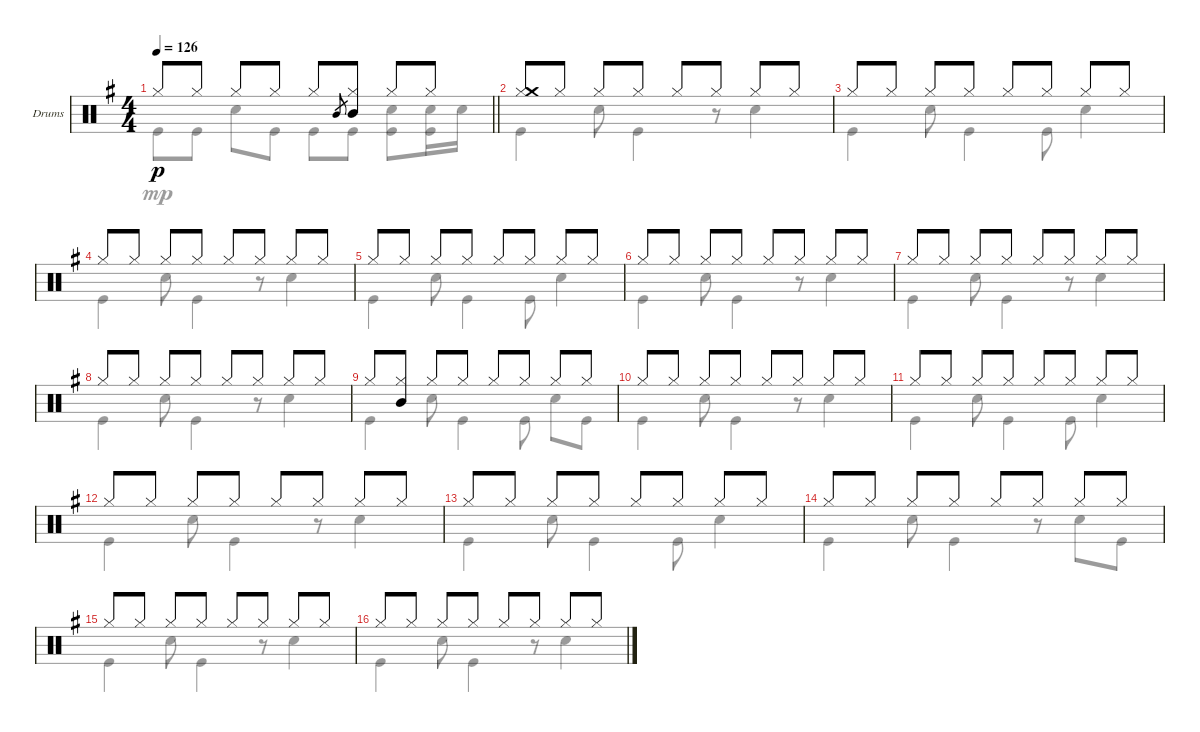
\bracketExtendMode groupsimilarinstruments
\firstSystemTrackNameOrientation horizontal
\otherSystemsTrackNameOrientation horizontal
\track ("Ударные" "Drums") {instrument percussion}
\staff {score}
\articulation defaults
\voice
\ts (4 4)
\tempo 126
\clef neutral
\barLineRight lightlight
\ks eminor "Hi-Hat (closed)".8{dy p} "Hi-Hat (closed)".8 "Hi-Hat (closed)".8 "Hi-Hat (closed)".8 "Hi-Hat (closed)".8 "Mid Tom (hit)".8{gr}
("Hi-Hat (closed)" "Mid Tom (hit)").8 "Hi-Hat (closed)".8 "Hi-Hat (closed)".8 |
\section ("" "")
("Hi-Hat (closed)" "Crash medium (hit)").8 "Hi-Hat (closed)".8 "Hi-Hat (closed)".8 "Hi-Hat (closed)".8 "Hi-Hat (closed)".8 "Hi-Hat (closed)".8 "Hi-Hat (closed)".8 "Hi-Hat (closed)".8 |
"Hi-Hat (closed)".8 "Hi-Hat (closed)".8 "Hi-Hat (closed)".8 "Hi-Hat (closed)".8 "Hi-Hat (closed)".8 "Hi-Hat (closed)".8 "Hi-Hat (closed)".8 "Hi-Hat (closed)".8 |
"Hi-Hat (closed)".8 "Hi-Hat (closed)".8 "Hi-Hat (closed)".8 "Hi-Hat (closed)".8 "Hi-Hat (closed)".8 "Hi-Hat (closed)".8 "Hi-Hat (closed)".8 "Hi-Hat (closed)".8 |
"Hi-Hat (closed)".8 "Hi-Hat (closed)".8 "Hi-Hat (closed)".8 "Hi-Hat (closed)".8 "Hi-Hat (closed)".8 "Hi-Hat (closed)".8 "Hi-Hat (closed)".8 "Hi-Hat (closed)".8 |
"Hi-Hat (closed)".8 "Hi-Hat (closed)".8 "Hi-Hat (closed)".8 "Hi-Hat (closed)".8 "Hi-Hat (closed)".8 "Hi-Hat (closed)".8 "Hi-Hat (closed)".8 "Hi-Hat (closed)".8 |
"Hi-Hat (closed)".8 "Hi-Hat (closed)".8 "Hi-Hat (closed)".8 "Hi-Hat (closed)".8 "Hi-Hat (closed)".8 "Hi-Hat (closed)".8 "Hi-Hat (closed)".8 "Hi-Hat (closed)".8 |
"Hi-Hat (closed)".8 "Hi-Hat (closed)".8 "Hi-Hat (closed)".8 "Hi-Hat (closed)".8 "Hi-Hat (closed)".8 "Hi-Hat (closed)".8 "Hi-Hat (closed)".8 "Hi-Hat (closed)".8 |
"Hi-Hat (closed)".8 ("Hi-Hat (closed)" "Mid Tom (hit)").8 "Hi-Hat (closed)".8 "Hi-Hat (closed)".8 "Hi-Hat (closed)".8 "Hi-Hat (closed)".8 "Hi-Hat (closed)".8 "Hi-Hat (closed)".8 |
"Hi-Hat (closed)".8 "Hi-Hat (closed)".8 "Hi-Hat (closed)".8 "Hi-Hat (closed)".8 "Hi-Hat (closed)".8 "Hi-Hat (closed)".8 "Hi-Hat (closed)".8 "Hi-Hat (closed)".8 |
"Hi-Hat (closed)".8 "Hi-Hat (closed)".8 "Hi-Hat (closed)".8 "Hi-Hat (closed)".8 "Hi-Hat (closed)".8 "Hi-Hat (closed)".8 "Hi-Hat (closed)".8 "Hi-Hat (closed)".8 |
"Hi-Hat (closed)".8 "Hi-Hat (closed)".8 "Hi-Hat (closed)".8 "Hi-Hat (closed)".8 "Hi-Hat (closed)".8 "Hi-Hat (closed)".8 "Hi-Hat (closed)".8 "Hi-Hat (closed)".8 |
"Hi-Hat (closed)".8 "Hi-Hat (closed)".8 "Hi-Hat (closed)".8 "Hi-Hat (closed)".8 "Hi-Hat (closed)".8 "Hi-Hat (closed)".8 "Hi-Hat (closed)".8 "Hi-Hat (closed)".8 |
"Hi-Hat (closed)".8 "Hi-Hat (closed)".8 "Hi-Hat (closed)".8 "Hi-Hat (closed)".8 "Hi-Hat (closed)".8 "Hi-Hat (closed)".8 "Hi-Hat (closed)".8 "Hi-Hat (closed)".8 |
"Hi-Hat (closed)".8 "Hi-Hat (closed)".8 "Hi-Hat (closed)".8 "Hi-Hat (closed)".8 "Hi-Hat (closed)".8 "Hi-Hat (closed)".8 "Hi-Hat (closed)".8 "Hi-Hat (closed)".8 |
"Hi-Hat (closed)".8 "Hi-Hat (closed)".8 "Hi-Hat (closed)".8 "Hi-Hat (closed)".8 "Hi-Hat (closed)".8 "Hi-Hat (closed)".8 "Hi-Hat (closed)".8 "Hi-Hat (closed)".8
\voice
\clef neutral
\ottava regular
\simile none
\barLineRight lightlight
\ks eminor "Kick (hit)".8{dy mp} "Kick (hit)".8 "Snare (hit) 2".8 "Kick (hit)".8 "Kick (hit)".8 "Kick (hit)".8
("Snare (hit) 2" "Kick (hit)").8 ("Snare (hit) 2" "Kick (hit)").16 "Snare (hit) 2".16 |
"Kick (hit)".4 "Snare (hit) 2".8 "Kick (hit)".4 r.8 "Snare (hit) 2".4 |
"Kick (hit)".4 "Snare (hit) 2".8 "Kick (hit)".4 "Kick (hit)".8 "Snare (hit) 2".4 |
"Kick (hit)".4 "Snare (hit) 2".8 "Kick (hit)".4 r.8 "Snare (hit) 2".4 |
"Kick (hit)".4 "Snare (hit) 2".8 "Kick (hit)".4 "Kick (hit)".8 "Snare (hit) 2".4 |
"Kick (hit)".4 "Snare (hit) 2".8 "Kick (hit)".4 r.8 "Snare (hit) 2".4 |
"Kick (hit)".4 "Snare (hit) 2".8 "Kick (hit)".4 r.8 "Snare (hit) 2".4 |
"Kick (hit)".4 "Snare (hit) 2".8 "Kick (hit)".4 r.8 "Snare (hit) 2".4 |
"Kick (hit)".4 "Snare (hit) 2".8 "Kick (hit)".4 "Kick (hit)".8 "Snare (hit) 2".8 "Kick (hit)".8 |
"Kick (hit)".4 "Snare (hit) 2".8 "Kick (hit)".4 r.8 "Snare (hit) 2".4 |
"Kick (hit)".4 "Snare (hit) 2".8 "Kick (hit)".4 "Kick (hit)".8 "Snare (hit) 2".4 |
"Kick (hit)".4 "Snare (hit) 2".8 "Kick (hit)".4 r.8 "Snare (hit) 2".4 |
"Kick (hit)".4 "Snare (hit) 2".8 "Kick (hit)".4 "Kick (hit)".8 "Snare (hit) 2".4 |
"Kick (hit)".4 "Snare (hit) 2".8 "Kick (hit)".4 r.8 "Snare (hit) 2".8 "Kick (hit)".8 |
"Kick (hit)".4 "Snare (hit) 2".8 "Kick (hit)".4 r.8 "Snare (hit) 2".4 |
"Kick (hit)".4 "Snare (hit) 2".8 "Kick (hit)".4 r.8 "Snare (hit) 2".4
